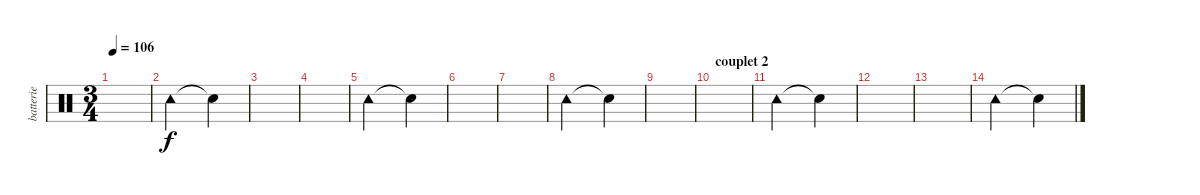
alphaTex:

\track ("batterie" "batterie") {instrument percussion}
\staff {score}
\articulation defaults
\ts (3 4)
\tempo 106
\clef neutral
\ks c
|
"Tambourine (hit)".2 "Snare (hit)"{t}.4 |
|
|
"Tambourine (hit)".2 "Snare (hit)"{t}.4 |
|
|
"Tambourine (hit)".2 "Snare (hit)"{t}.4 |
|
\section ("" "couplet 2")
|
"Tambourine (hit)".2 "Snare (hit)"{t}.4 |
|
|
"Tambourine (hit)".2 "Snare (hit)"{t}.4
